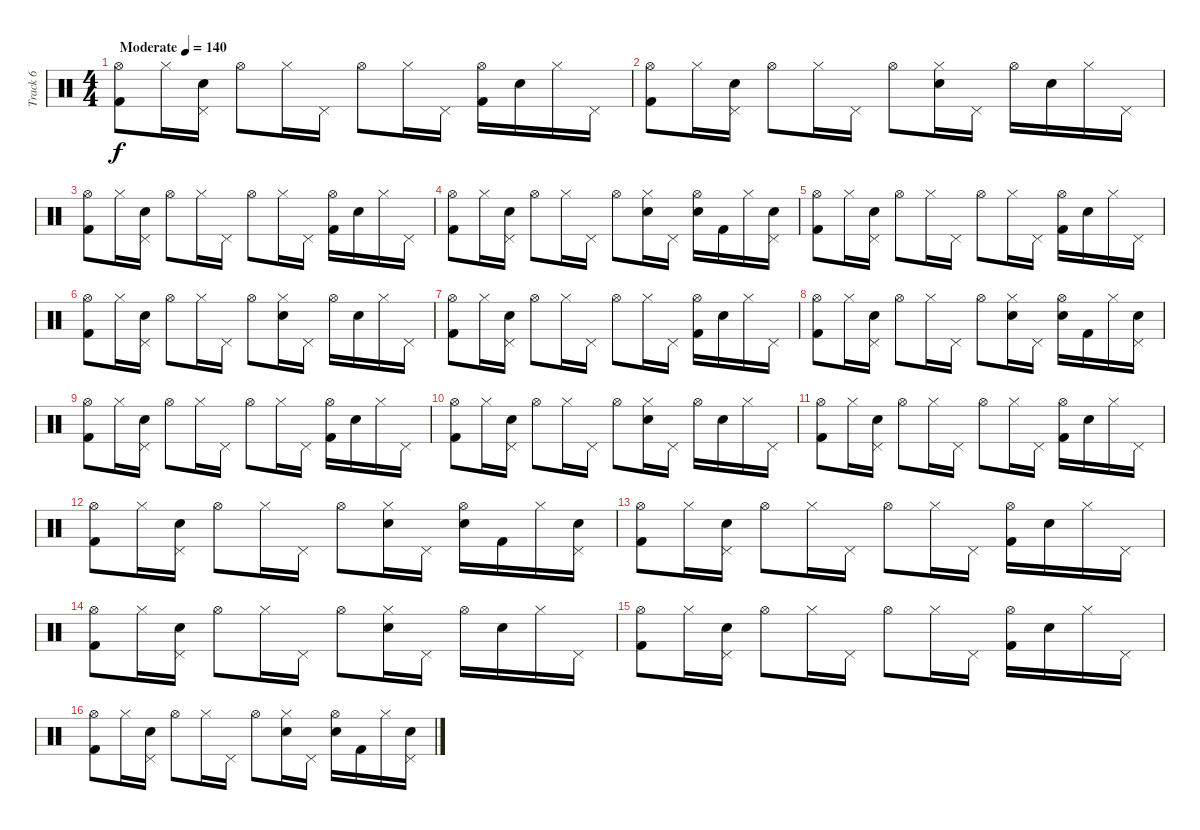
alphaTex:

\track ("Track 6" "Track 6") {instrument percussion}
\staff {score}
\articulation defaults
\ts (4 4)
\tempo (140 "Moderate")
\clef neutral
\ks c
("Hi-Hat (open)" "Kick (hit) 2").8{dy f} "Hi-Hat (closed)".16 ("Pedal Hi-Hat (hit)" "Electric Snare (hit)").16 "Hi-Hat (open)".8 "Hi-Hat (closed)".16 "Pedal Hi-Hat (hit)".16 "Hi-Hat (open)".8 "Hi-Hat (closed)".16 "Pedal Hi-Hat (hit)".16 ("Hi-Hat (open)" "Kick (hit) 2").16 "Electric Snare (hit)".16 "Hi-Hat (closed)".16 "Pedal Hi-Hat (hit)".16 |
("Hi-Hat (open)" "Kick (hit) 2").8 "Hi-Hat (closed)".16 ("Pedal Hi-Hat (hit)" "Electric Snare (hit)").16 "Hi-Hat (open)".8 "Hi-Hat (closed)".16 "Pedal Hi-Hat (hit)".16 "Hi-Hat (open)".8 ("Hi-Hat (closed)" "Electric Snare (hit)").16 "Pedal Hi-Hat (hit)".16 "Hi-Hat (open)".16 "Electric Snare (hit)".16 "Hi-Hat (closed)".16 "Pedal Hi-Hat (hit)".16 |
("Hi-Hat (open)" "Kick (hit) 2").8 "Hi-Hat (closed)".16 ("Pedal Hi-Hat (hit)" "Electric Snare (hit)").16 "Hi-Hat (open)".8 "Hi-Hat (closed)".16 "Pedal Hi-Hat (hit)".16 "Hi-Hat (open)".8 "Hi-Hat (closed)".16 "Pedal Hi-Hat (hit)".16 ("Hi-Hat (open)" "Kick (hit) 2").16 "Electric Snare (hit)".16 "Hi-Hat (closed)".16 "Pedal Hi-Hat (hit)".16 |
("Hi-Hat (open)" "Kick (hit) 2").8 "Hi-Hat (closed)".16 ("Pedal Hi-Hat (hit)" "Electric Snare (hit)").16 "Hi-Hat (open)".8 "Hi-Hat (closed)".16 "Pedal Hi-Hat (hit)".16 "Hi-Hat (open)".8 ("Hi-Hat (closed)" "Electric Snare (hit)").16 "Pedal Hi-Hat (hit)".16 ("Hi-Hat (open)" "Electric Snare (hit)").16 "Kick (hit) 2".16 "Hi-Hat (closed)".16 ("Pedal Hi-Hat (hit)" "Electric Snare (hit)").16 |
("Hi-Hat (open)" "Kick (hit) 2").8 "Hi-Hat (closed)".16 ("Pedal Hi-Hat (hit)" "Electric Snare (hit)").16 "Hi-Hat (open)".8 "Hi-Hat (closed)".16 "Pedal Hi-Hat (hit)".16 "Hi-Hat (open)".8 "Hi-Hat (closed)".16 "Pedal Hi-Hat (hit)".16 ("Hi-Hat (open)" "Kick (hit) 2").16 "Electric Snare (hit)".16 "Hi-Hat (closed)".16 "Pedal Hi-Hat (hit)".16 |
("Hi-Hat (open)" "Kick (hit) 2").8 "Hi-Hat (closed)".16 ("Pedal Hi-Hat (hit)" "Electric Snare (hit)").16 "Hi-Hat (open)".8 "Hi-Hat (closed)".16 "Pedal Hi-Hat (hit)".16 "Hi-Hat (open)".8 ("Hi-Hat (closed)" "Electric Snare (hit)").16 "Pedal Hi-Hat (hit)".16 "Hi-Hat (open)".16 "Electric Snare (hit)".16 "Hi-Hat (closed)".16 "Pedal Hi-Hat (hit)".16 |
("Hi-Hat (open)" "Kick (hit) 2").8 "Hi-Hat (closed)".16 ("Pedal Hi-Hat (hit)" "Electric Snare (hit)").16 "Hi-Hat (open)".8 "Hi-Hat (closed)".16 "Pedal Hi-Hat (hit)".16 "Hi-Hat (open)".8 "Hi-Hat (closed)".16 "Pedal Hi-Hat (hit)".16 ("Hi-Hat (open)" "Kick (hit) 2").16 "Electric Snare (hit)".16 "Hi-Hat (closed)".16 "Pedal Hi-Hat (hit)".16 |
("Hi-Hat (open)" "Kick (hit) 2").8 "Hi-Hat (closed)".16 ("Pedal Hi-Hat (hit)" "Electric Snare (hit)").16 "Hi-Hat (open)".8 "Hi-Hat (closed)".16 "Pedal Hi-Hat (hit)".16 "Hi-Hat (open)".8 ("Hi-Hat (closed)" "Electric Snare (hit)").16 "Pedal Hi-Hat (hit)".16 ("Hi-Hat (open)" "Electric Snare (hit)").16 "Kick (hit) 2".16 "Hi-Hat (closed)".16 ("Pedal Hi-Hat (hit)" "Electric Snare (hit)").16 |
("Hi-Hat (open)" "Kick (hit) 2").8 "Hi-Hat (closed)".16 ("Pedal Hi-Hat (hit)" "Electric Snare (hit)").16 "Hi-Hat (open)".8 "Hi-Hat (closed)".16 "Pedal Hi-Hat (hit)".16 "Hi-Hat (open)".8 "Hi-Hat (closed)".16 "Pedal Hi-Hat (hit)".16 ("Hi-Hat (open)" "Kick (hit) 2").16 "Electric Snare (hit)".16 "Hi-Hat (closed)".16 "Pedal Hi-Hat (hit)".16 |
("Hi-Hat (open)" "Kick (hit) 2").8 "Hi-Hat (closed)".16 ("Pedal Hi-Hat (hit)" "Electric Snare (hit)").16 "Hi-Hat (open)".8 "Hi-Hat (closed)".16 "Pedal Hi-Hat (hit)".16 "Hi-Hat (open)".8 ("Hi-Hat (closed)" "Electric Snare (hit)").16 "Pedal Hi-Hat (hit)".16 "Hi-Hat (open)".16 "Electric Snare (hit)".16 "Hi-Hat (closed)".16 "Pedal Hi-Hat (hit)".16 |
("Hi-Hat (open)" "Kick (hit) 2").8 "Hi-Hat (closed)".16 ("Pedal Hi-Hat (hit)" "Electric Snare (hit)").16 "Hi-Hat (open)".8 "Hi-Hat (closed)".16 "Pedal Hi-Hat (hit)".16 "Hi-Hat (open)".8 "Hi-Hat (closed)".16 "Pedal Hi-Hat (hit)".16 ("Hi-Hat (open)" "Kick (hit) 2").16 "Electric Snare (hit)".16 "Hi-Hat (closed)".16 "Pedal Hi-Hat (hit)".16 |
("Hi-Hat (open)" "Kick (hit) 2").8 "Hi-Hat (closed)".16 ("Pedal Hi-Hat (hit)" "Electric Snare (hit)").16 "Hi-Hat (open)".8 "Hi-Hat (closed)".16 "Pedal Hi-Hat (hit)".16 "Hi-Hat (open)".8 ("Hi-Hat (closed)" "Electric Snare (hit)").16 "Pedal Hi-Hat (hit)".16 ("Hi-Hat (open)" "Electric Snare (hit)").16 "Kick (hit) 2".16 "Hi-Hat (closed)".16 ("Pedal Hi-Hat (hit)" "Electric Snare (hit)").16 |
("Hi-Hat (open)" "Kick (hit) 2").8 "Hi-Hat (closed)".16 ("Pedal Hi-Hat (hit)" "Electric Snare (hit)").16 "Hi-Hat (open)".8 "Hi-Hat (closed)".16 "Pedal Hi-Hat (hit)".16 "Hi-Hat (open)".8 "Hi-Hat (closed)".16 "Pedal Hi-Hat (hit)".16 ("Hi-Hat (open)" "Kick (hit) 2").16 "Electric Snare (hit)".16 "Hi-Hat (closed)".16 "Pedal Hi-Hat (hit)".16 |
("Hi-Hat (open)" "Kick (hit) 2").8 "Hi-Hat (closed)".16 ("Pedal Hi-Hat (hit)" "Electric Snare (hit)").16 "Hi-Hat (open)".8 "Hi-Hat (closed)".16 "Pedal Hi-Hat (hit)".16 "Hi-Hat (open)".8 ("Hi-Hat (closed)" "Electric Snare (hit)").16 "Pedal Hi-Hat (hit)".16 "Hi-Hat (open)".16 "Electric Snare (hit)".16 "Hi-Hat (closed)".16 "Pedal Hi-Hat (hit)".16 |
("Hi-Hat (open)" "Kick (hit) 2").8 "Hi-Hat (closed)".16 ("Pedal Hi-Hat (hit)" "Electric Snare (hit)").16 "Hi-Hat (open)".8 "Hi-Hat (closed)".16 "Pedal Hi-Hat (hit)".16 "Hi-Hat (open)".8 "Hi-Hat (closed)".16 "Pedal Hi-Hat (hit)".16 ("Hi-Hat (open)" "Kick (hit) 2").16 "Electric Snare (hit)".16 "Hi-Hat (closed)".16 "Pedal Hi-Hat (hit)".16 |
("Hi-Hat (open)" "Kick (hit) 2").8 "Hi-Hat (closed)".16 ("Pedal Hi-Hat (hit)" "Electric Snare (hit)").16 "Hi-Hat (open)".8 "Hi-Hat (closed)".16 "Pedal Hi-Hat (hit)".16 "Hi-Hat (open)".8 ("Hi-Hat (closed)" "Electric Snare (hit)").16 "Pedal Hi-Hat (hit)".16 ("Hi-Hat (open)" "Electric Snare (hit)").16 "Kick (hit) 2".16 "Hi-Hat (closed)".16 ("Pedal Hi-Hat (hit)" "Electric Snare (hit)").16
